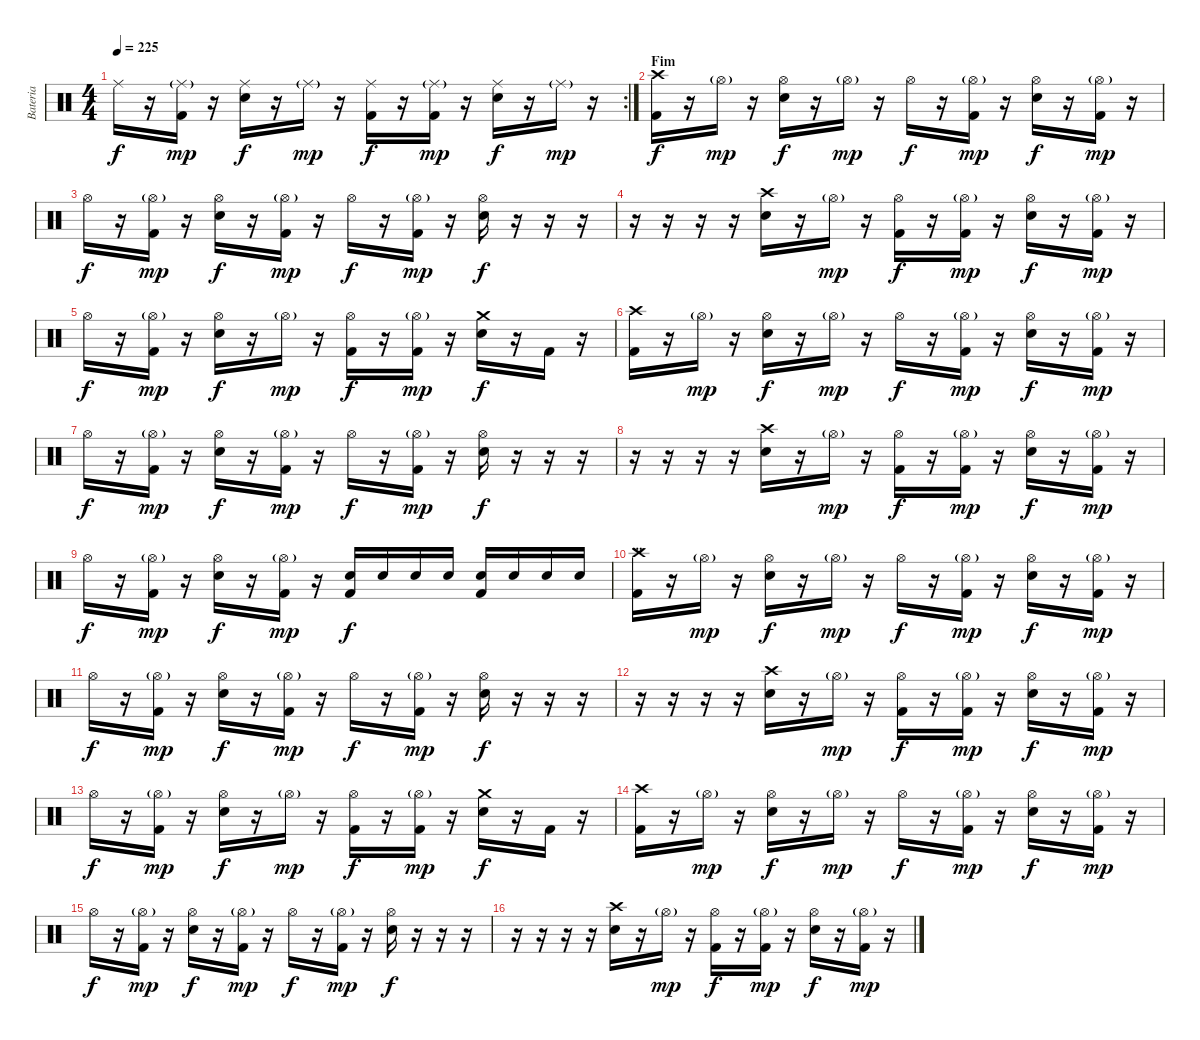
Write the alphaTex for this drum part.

\track ("Bateria" "Bateria") {instrument percussion}
\staff {score}
\articulation defaults
\rc 2
\ts (4 4)
\tempo 225
\clef neutral
\ks c "Ride (middle)".16{dy f}
r.16 ("Ride (middle)"{g} "Kick (hit) 2").16{dy mp} r.16 ("Ride (middle)" "Electric Snare (hit)").16{dy f} r.16 "Ride (middle)"{g}.16{dy mp} r.16 ("Ride (middle)" "Kick (hit) 2").16{dy f} r.16 ("Ride (middle)"{g} "Kick (hit) 2").16{dy mp} r.16 ("Ride (middle)" "Electric Snare (hit)").16{dy f} r.16 "Ride (middle)"{g}.16{dy mp} r.16 |
\section ("" "Fim")
("Crash high (hit)" "Kick (hit) 2").16{dy f} r.16 "Hi-Hat (open)"{g}.16{dy mp} r.16 ("Hi-Hat (open)" "Electric Snare (hit)").16{dy f} r.16 "Hi-Hat (open)"{g}.16{dy mp} r.16 "Hi-Hat (open)".16{dy f} r.16 ("Hi-Hat (open)"{g} "Kick (hit) 2").16{dy mp} r.16 ("Hi-Hat (open)" "Electric Snare (hit)").16{dy f} r.16 ("Hi-Hat (open)"{g} "Kick (hit) 2").16{dy mp} r.16 |
"Hi-Hat (open)".16{dy f} r.16 ("Hi-Hat (open)"{g} "Kick (hit) 2").16{dy mp} r.16 ("Hi-Hat (open)" "Electric Snare (hit)").16{dy f} r.16 ("Hi-Hat (open)"{g} "Kick (hit) 2").16{dy mp} r.16 "Hi-Hat (open)".16{dy f} r.16 ("Hi-Hat (open)"{g} "Kick (hit) 2").16{dy mp} r.16 ("Hi-Hat (open)" "Electric Snare (hit)").16{dy f} r.16 r.16 r.16 |
r.16 r.16 r.16 r.16 ("Crash high (hit)" "Electric Snare (hit)").16 r.16 "Hi-Hat (open)"{g}.16{dy mp} r.16 ("Hi-Hat (open)" "Kick (hit) 2").16{dy f} r.16 ("Hi-Hat (open)"{g} "Kick (hit) 2").16{dy mp} r.16 ("Hi-Hat (open)" "Electric Snare (hit)").16{dy f} r.16 ("Hi-Hat (open)"{g} "Kick (hit) 2").16{dy mp} r.16 |
"Hi-Hat (open)".16{dy f} r.16 ("Hi-Hat (open)"{g} "Kick (hit) 2").16{dy mp} r.16 ("Hi-Hat (open)" "Electric Snare (hit)").16{dy f} r.16 "Hi-Hat (open)"{g}.16{dy mp} r.16 ("Hi-Hat (open)" "Kick (hit) 2").16{dy f} r.16 ("Hi-Hat (open)"{g} "Kick (hit) 2").16{dy mp} r.16 ("Crash medium (hit)" "Electric Snare (hit)").16{dy f} r.16 "Kick (hit) 2".16 r.16 |
("Crash high (hit)" "Kick (hit) 2").16 r.16 "Hi-Hat (open)"{g}.16{dy mp} r.16 ("Hi-Hat (open)" "Electric Snare (hit)").16{dy f} r.16 "Hi-Hat (open)"{g}.16{dy mp} r.16 "Hi-Hat (open)".16{dy f} r.16 ("Hi-Hat (open)"{g} "Kick (hit) 2").16{dy mp} r.16 ("Hi-Hat (open)" "Electric Snare (hit)").16{dy f} r.16 ("Hi-Hat (open)"{g} "Kick (hit) 2").16{dy mp} r.16 |
"Hi-Hat (open)".16{dy f} r.16 ("Hi-Hat (open)"{g} "Kick (hit) 2").16{dy mp} r.16 ("Hi-Hat (open)" "Electric Snare (hit)").16{dy f} r.16 ("Hi-Hat (open)"{g} "Kick (hit) 2").16{dy mp} r.16 "Hi-Hat (open)".16{dy f} r.16 ("Hi-Hat (open)"{g} "Kick (hit) 2").16{dy mp} r.16 ("Hi-Hat (open)" "Electric Snare (hit)").16{dy f} r.16 r.16 r.16 |
r.16 r.16 r.16 r.16 ("Crash high (hit)" "Electric Snare (hit)").16 r.16 "Hi-Hat (open)"{g}.16{dy mp} r.16 ("Hi-Hat (open)" "Kick (hit) 2").16{dy f} r.16 ("Hi-Hat (open)"{g} "Kick (hit) 2").16{dy mp} r.16 ("Hi-Hat (open)" "Electric Snare (hit)").16{dy f} r.16 ("Hi-Hat (open)"{g} "Kick (hit) 2").16{dy mp} r.16 |
"Hi-Hat (open)".16{dy f} r.16 ("Hi-Hat (open)"{g} "Kick (hit) 2").16{dy mp} r.16 ("Hi-Hat (open)" "Electric Snare (hit)").16{dy f} r.16 ("Hi-Hat (open)"{g} "Kick (hit) 2").16{dy mp} r.16 ("Electric Snare (hit)" "Kick (hit) 2").16{dy f} "Electric Snare (hit)".16 "Electric Snare (hit)".16 "Electric Snare (hit)".16 ("Electric Snare (hit)" "Kick (hit) 2").16 "Electric Snare (hit)".16 "Electric Snare (hit)".16 "Electric Snare (hit)".16 |
\section ("" "...")
("Crash high (hit)" "Kick (hit) 2").16 r.16 "Hi-Hat (open)"{g}.16{dy mp} r.16 ("Hi-Hat (open)" "Electric Snare (hit)").16{dy f} r.16 "Hi-Hat (open)"{g}.16{dy mp} r.16 "Hi-Hat (open)".16{dy f} r.16 ("Hi-Hat (open)"{g} "Kick (hit) 2").16{dy mp} r.16 ("Hi-Hat (open)" "Electric Snare (hit)").16{dy f} r.16 ("Hi-Hat (open)"{g} "Kick (hit) 2").16{dy mp} r.16 |
"Hi-Hat (open)".16{dy f} r.16 ("Hi-Hat (open)"{g} "Kick (hit) 2").16{dy mp} r.16 ("Hi-Hat (open)" "Electric Snare (hit)").16{dy f} r.16 ("Hi-Hat (open)"{g} "Kick (hit) 2").16{dy mp} r.16 "Hi-Hat (open)".16{dy f} r.16 ("Hi-Hat (open)"{g} "Kick (hit) 2").16{dy mp} r.16 ("Hi-Hat (open)" "Electric Snare (hit)").16{dy f} r.16 r.16 r.16 |
r.16 r.16 r.16 r.16 ("Crash high (hit)" "Electric Snare (hit)").16 r.16 "Hi-Hat (open)"{g}.16{dy mp} r.16 ("Hi-Hat (open)" "Kick (hit) 2").16{dy f} r.16 ("Hi-Hat (open)"{g} "Kick (hit) 2").16{dy mp} r.16 ("Hi-Hat (open)" "Electric Snare (hit)").16{dy f} r.16 ("Hi-Hat (open)"{g} "Kick (hit) 2").16{dy mp} r.16 |
"Hi-Hat (open)".16{dy f} r.16 ("Hi-Hat (open)"{g} "Kick (hit) 2").16{dy mp} r.16 ("Hi-Hat (open)" "Electric Snare (hit)").16{dy f} r.16 "Hi-Hat (open)"{g}.16{dy mp} r.16 ("Hi-Hat (open)" "Kick (hit) 2").16{dy f} r.16 ("Hi-Hat (open)"{g} "Kick (hit) 2").16{dy mp} r.16 ("Crash medium (hit)" "Electric Snare (hit)").16{dy f} r.16 "Kick (hit) 2".16 r.16 |
("Crash high (hit)" "Kick (hit) 2").16 r.16 "Hi-Hat (open)"{g}.16{dy mp} r.16 ("Hi-Hat (open)" "Electric Snare (hit)").16{dy f} r.16 "Hi-Hat (open)"{g}.16{dy mp} r.16 "Hi-Hat (open)".16{dy f} r.16 ("Hi-Hat (open)"{g} "Kick (hit) 2").16{dy mp} r.16 ("Hi-Hat (open)" "Electric Snare (hit)").16{dy f} r.16 ("Hi-Hat (open)"{g} "Kick (hit) 2").16{dy mp} r.16 |
"Hi-Hat (open)".16{dy f} r.16 ("Hi-Hat (open)"{g} "Kick (hit) 2").16{dy mp} r.16 ("Hi-Hat (open)" "Electric Snare (hit)").16{dy f} r.16 ("Hi-Hat (open)"{g} "Kick (hit) 2").16{dy mp} r.16 "Hi-Hat (open)".16{dy f} r.16 ("Hi-Hat (open)"{g} "Kick (hit) 2").16{dy mp} r.16 ("Hi-Hat (open)" "Electric Snare (hit)").16{dy f} r.16 r.16 r.16 |
r.16 r.16 r.16 r.16 ("Crash high (hit)" "Electric Snare (hit)").16 r.16 "Hi-Hat (open)"{g}.16{dy mp} r.16 ("Hi-Hat (open)" "Kick (hit) 2").16{dy f} r.16 ("Hi-Hat (open)"{g} "Kick (hit) 2").16{dy mp} r.16 ("Hi-Hat (open)" "Electric Snare (hit)").16{dy f} r.16 ("Hi-Hat (open)"{g} "Kick (hit) 2").16{dy mp} r.16
